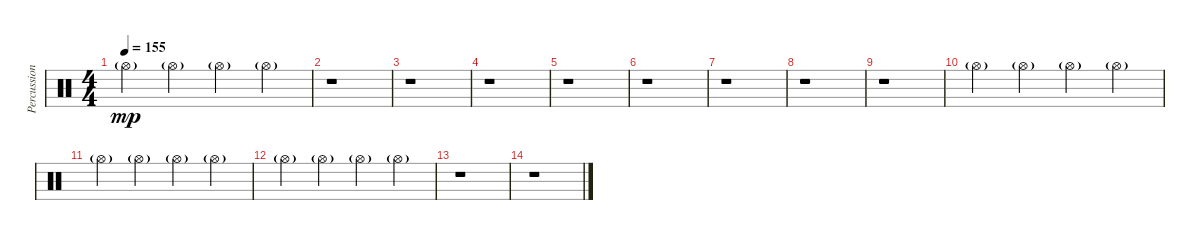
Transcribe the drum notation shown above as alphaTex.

\track ("Percussion" "Percussion") {instrument percussion}
\staff {score}
\articulation defaults
\ts (4 4)
\tempo 155
\clef neutral
\ks c "Hi-Hat (open)"{g}.4{dy mp} "Hi-Hat (open)"{g}.4 "Hi-Hat (open)"{g}.4 "Hi-Hat (open)"{g}.4
|
r.1 |
r.1 |
r.1 |
r.1 |
r.1 |
r.1 |
r.1 |
r.1 |
"Hi-Hat (open)"{g}.4 "Hi-Hat (open)"{g}.4 "Hi-Hat (open)"{g}.4 "Hi-Hat (open)"{g}.4 |
"Hi-Hat (open)"{g}.4 "Hi-Hat (open)"{g}.4 "Hi-Hat (open)"{g}.4 "Hi-Hat (open)"{g}.4 |
"Hi-Hat (open)"{g}.4 "Hi-Hat (open)"{g}.4 "Hi-Hat (open)"{g}.4 "Hi-Hat (open)"{g}.4 |
r.1 |
r.1
